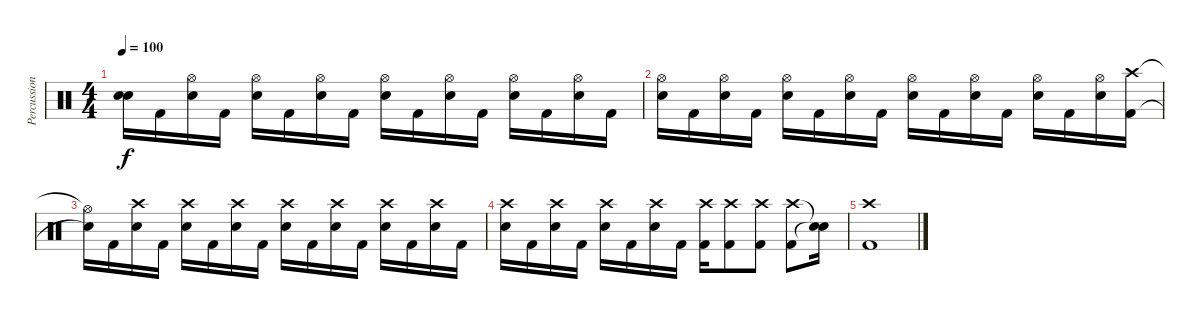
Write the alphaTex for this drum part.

\track ("Percussion" "Percussion") {instrument percussion}
\staff {score}
\articulation defaults
\ts (4 4)
\tempo 100
\clef neutral
\ks c
("Snare (hit)"{t} "Snare (hit)"{t}).16{dy f} "Kick (hit) 2".16 ("Hi-Hat (open)" "Electric Snare (hit)").16 "Kick (hit) 2".16 ("Hi-Hat (open)" "Electric Snare (hit)").16 "Kick (hit) 2".16 ("Hi-Hat (open)" "Electric Snare (hit)").16 "Kick (hit) 2".16 ("Hi-Hat (open)" "Electric Snare (hit)").16 "Kick (hit) 2".16 ("Hi-Hat (open)" "Electric Snare (hit)").16 "Kick (hit) 2".16 ("Hi-Hat (open)" "Electric Snare (hit)").16 "Kick (hit) 2".16 ("Hi-Hat (open)" "Electric Snare (hit)").16 "Kick (hit) 2".16 |
("Hi-Hat (open)" "Electric Snare (hit)").16 "Kick (hit) 2".16 ("Hi-Hat (open)" "Electric Snare (hit)").16 "Kick (hit) 2".16 ("Hi-Hat (open)" "Electric Snare (hit)").16 "Kick (hit) 2".16 ("Hi-Hat (open)" "Electric Snare (hit)").16 "Kick (hit) 2".16 ("Hi-Hat (open)" "Electric Snare (hit)").16 "Kick (hit) 2".16 ("Hi-Hat (open)" "Electric Snare (hit)").16 "Kick (hit) 2".16 ("Hi-Hat (open)" "Electric Snare (hit)").16 "Kick (hit) 2".16 ("Hi-Hat (open)" "Electric Snare (hit)").16 ("Crash high (hit)" "Kick (hit) 2").16 |
("Hi-Hat (open)"{t} "Snare (hit)"{t}).16 "Kick (hit) 2".16 ("Crash high (hit)" "Electric Snare (hit)").16 "Kick (hit) 2".16 ("Crash high (hit)" "Electric Snare (hit)").16 "Kick (hit) 2".16 ("Crash high (hit)" "Electric Snare (hit)").16 "Kick (hit) 2".16 ("Crash high (hit)" "Electric Snare (hit)").16 "Kick (hit) 2".16 ("Crash high (hit)" "Electric Snare (hit)").16 "Kick (hit) 2".16 ("Crash high (hit)" "Electric Snare (hit)").16 "Kick (hit) 2".16 ("Crash high (hit)" "Electric Snare (hit)").16 "Kick (hit) 2".16 |
("Crash high (hit)" "Electric Snare (hit)").16 "Kick (hit) 2".16 ("Crash high (hit)" "Electric Snare (hit)").16 "Kick (hit) 2".16 ("Crash high (hit)" "Electric Snare (hit)").16 "Kick (hit) 2".16 ("Crash high (hit)" "Electric Snare (hit)").16 "Kick (hit) 2".16 ("Crash high (hit)" "Kick (hit) 2").16 ("Crash high (hit)" "Kick (hit) 2").8 ("Crash high (hit)" "Kick (hit) 2").8 ("Crash high (hit)" "Kick (hit) 2").8 ("Snare (hit)"{t} "Snare (hit)"{t}).16 |
("Crash high (hit)" "Kick (hit) 2").1
